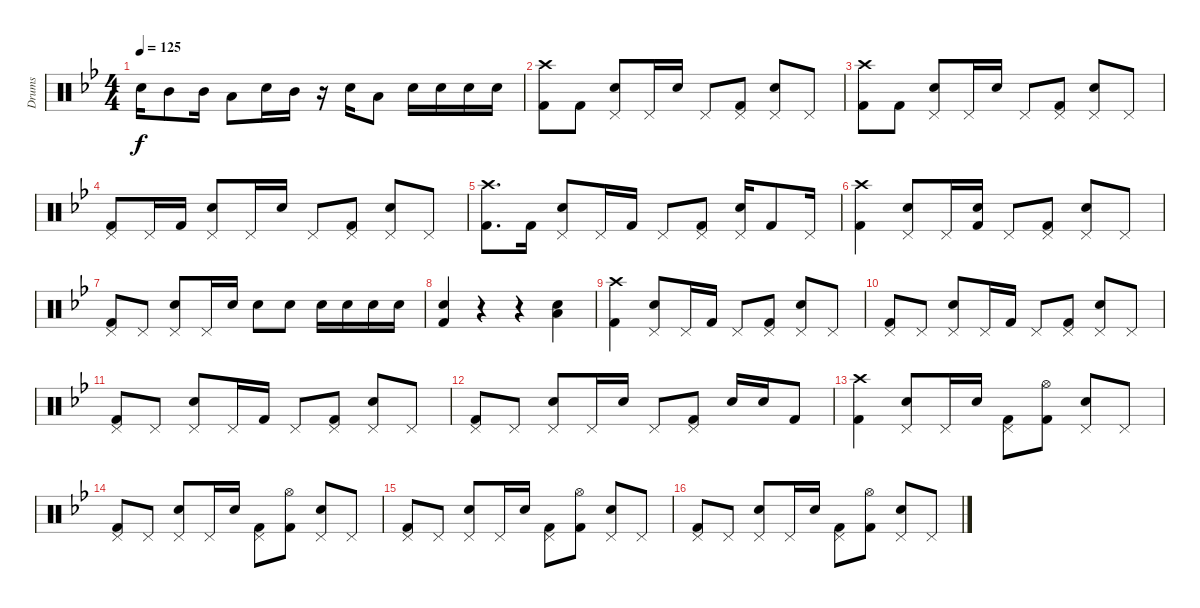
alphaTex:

\track ("Drums" "Drums") {instrument percussion}
\staff {score}
\articulation defaults
\ts (4 4)
\tempo 125
\clef neutral
\ks bb "Electric Snare (hit)".16{dy f} "Mid Tom (hit)".8 "Mid Tom (hit)".16 "Low Tom (hit)".8 "Electric Snare (hit)".16 "Mid Tom (hit)".16
r.16 "Electric Snare (hit)".16 "Low Tom (hit)".8 "Electric Snare (hit)".16 "Electric Snare (hit)".16 "Electric Snare (hit)".16 "Electric Snare (hit)".16 |
("Crash high (hit)" "Kick (hit) 2").8 "Kick (hit) 2".8 ("Pedal Hi-Hat (hit)" "Electric Snare (hit)").8 "Pedal Hi-Hat (hit)".16 "Electric Snare (hit)".16 "Pedal Hi-Hat (hit)".8 ("Pedal Hi-Hat (hit)" "Kick (hit) 2").8 ("Pedal Hi-Hat (hit)" "Electric Snare (hit)").8 "Pedal Hi-Hat (hit)".8 |
("Crash high (hit)" "Kick (hit) 2").8 "Kick (hit) 2".8 ("Pedal Hi-Hat (hit)" "Electric Snare (hit)").8 "Pedal Hi-Hat (hit)".16 "Electric Snare (hit)".16 "Pedal Hi-Hat (hit)".8 ("Pedal Hi-Hat (hit)" "Kick (hit) 2").8 ("Pedal Hi-Hat (hit)" "Electric Snare (hit)").8 "Pedal Hi-Hat (hit)".8 |
("Pedal Hi-Hat (hit)" "Kick (hit) 2").8 "Pedal Hi-Hat (hit)".16 "Kick (hit) 2".16 ("Pedal Hi-Hat (hit)" "Electric Snare (hit)").8 "Pedal Hi-Hat (hit)".16 "Electric Snare (hit)".16 "Pedal Hi-Hat (hit)".8 ("Pedal Hi-Hat (hit)" "Kick (hit) 2").8 ("Pedal Hi-Hat (hit)" "Electric Snare (hit)").8 "Pedal Hi-Hat (hit)".8 |
("Crash high (hit)" "Kick (hit) 2").8{d} "Kick (hit) 2".16 ("Pedal Hi-Hat (hit)" "Electric Snare (hit)").8 "Pedal Hi-Hat (hit)".16 "Kick (hit) 2".16 "Pedal Hi-Hat (hit)".8 ("Pedal Hi-Hat (hit)" "Kick (hit) 2").8 ("Pedal Hi-Hat (hit)" "Electric Snare (hit)").16 "Kick (hit) 2".8 "Pedal Hi-Hat (hit)".16 |
("Crash high (hit)" "Kick (hit) 2").4 ("Pedal Hi-Hat (hit)" "Electric Snare (hit)").8 "Pedal Hi-Hat (hit)".16 ("Electric Snare (hit)" "Kick (hit) 2").16 "Pedal Hi-Hat (hit)".8 ("Pedal Hi-Hat (hit)" "Kick (hit) 2").8 ("Pedal Hi-Hat (hit)" "Electric Snare (hit)").8 "Pedal Hi-Hat (hit)".8 |
("Pedal Hi-Hat (hit)" "Kick (hit) 2").8 "Pedal Hi-Hat (hit)".8 ("Pedal Hi-Hat (hit)" "Electric Snare (hit)").8 "Pedal Hi-Hat (hit)".16 "Electric Snare (hit)".16 "Electric Snare (hit)".8 "Electric Snare (hit)".8 "Electric Snare (hit)".16 "Electric Snare (hit)".16 "Electric Snare (hit)".16 "Electric Snare (hit)".16 |
("Electric Snare (hit)" "Kick (hit) 2").4 r.4 r.4 ("Electric Snare (hit)" "Low Floor Tom (hit)").4 |
("Crash high (hit)" "Kick (hit) 2").4 ("Pedal Hi-Hat (hit)" "Electric Snare (hit)").8 "Pedal Hi-Hat (hit)".16 "Kick (hit) 2".16 "Pedal Hi-Hat (hit)".8 ("Pedal Hi-Hat (hit)" "Kick (hit) 2").8 ("Pedal Hi-Hat (hit)" "Electric Snare (hit)").8 "Pedal Hi-Hat (hit)".8 |
("Pedal Hi-Hat (hit)" "Kick (hit) 2").8 "Pedal Hi-Hat (hit)".8 ("Pedal Hi-Hat (hit)" "Electric Snare (hit)").8 "Pedal Hi-Hat (hit)".16 "Kick (hit) 2".16 "Pedal Hi-Hat (hit)".8 ("Pedal Hi-Hat (hit)" "Kick (hit) 2").8 ("Pedal Hi-Hat (hit)" "Electric Snare (hit)").8 "Pedal Hi-Hat (hit)".8 |
("Pedal Hi-Hat (hit)" "Kick (hit) 2").8 "Pedal Hi-Hat (hit)".8 ("Pedal Hi-Hat (hit)" "Electric Snare (hit)").8 "Pedal Hi-Hat (hit)".16 "Kick (hit) 2".16 "Pedal Hi-Hat (hit)".8 ("Pedal Hi-Hat (hit)" "Kick (hit) 2").8 ("Pedal Hi-Hat (hit)" "Electric Snare (hit)").8 "Pedal Hi-Hat (hit)".8 |
("Pedal Hi-Hat (hit)" "Kick (hit) 2").8 "Pedal Hi-Hat (hit)".8 ("Pedal Hi-Hat (hit)" "Electric Snare (hit)").8 "Pedal Hi-Hat (hit)".16 "Electric Snare (hit)".16 "Pedal Hi-Hat (hit)".8 ("Pedal Hi-Hat (hit)" "Kick (hit) 2").8 "Electric Snare (hit)".16 "Electric Snare (hit)".16 "Kick (hit) 2".8 |
("Crash high (hit)" "Kick (hit) 2").4 ("Pedal Hi-Hat (hit)" "Electric Snare (hit)").8 "Pedal Hi-Hat (hit)".16 "Electric Snare (hit)".16 ("Pedal Hi-Hat (hit)" "Kick (hit) 2").8 ("Hi-Hat (open)" "Kick (hit) 2").8 ("Pedal Hi-Hat (hit)" "Electric Snare (hit)").8 "Pedal Hi-Hat (hit)".8 |
("Pedal Hi-Hat (hit)" "Kick (hit) 2").8 "Pedal Hi-Hat (hit)".8 ("Pedal Hi-Hat (hit)" "Electric Snare (hit)").8 "Pedal Hi-Hat (hit)".16 "Electric Snare (hit)".16 ("Pedal Hi-Hat (hit)" "Kick (hit) 2").8 ("Hi-Hat (open)" "Kick (hit) 2").8 ("Pedal Hi-Hat (hit)" "Electric Snare (hit)").8 "Pedal Hi-Hat (hit)".8 |
("Pedal Hi-Hat (hit)" "Kick (hit) 2").8 "Pedal Hi-Hat (hit)".8 ("Pedal Hi-Hat (hit)" "Electric Snare (hit)").8 "Pedal Hi-Hat (hit)".16 "Electric Snare (hit)".16 ("Pedal Hi-Hat (hit)" "Kick (hit) 2").8 ("Hi-Hat (open)" "Kick (hit) 2").8 ("Pedal Hi-Hat (hit)" "Electric Snare (hit)").8 "Pedal Hi-Hat (hit)".8 |
("Pedal Hi-Hat (hit)" "Kick (hit) 2").8 "Pedal Hi-Hat (hit)".8 ("Pedal Hi-Hat (hit)" "Electric Snare (hit)").8 "Pedal Hi-Hat (hit)".16 "Electric Snare (hit)".16 ("Pedal Hi-Hat (hit)" "Kick (hit) 2").8 ("Hi-Hat (open)" "Kick (hit) 2").8 ("Pedal Hi-Hat (hit)" "Electric Snare (hit)").8 "Pedal Hi-Hat (hit)".8
